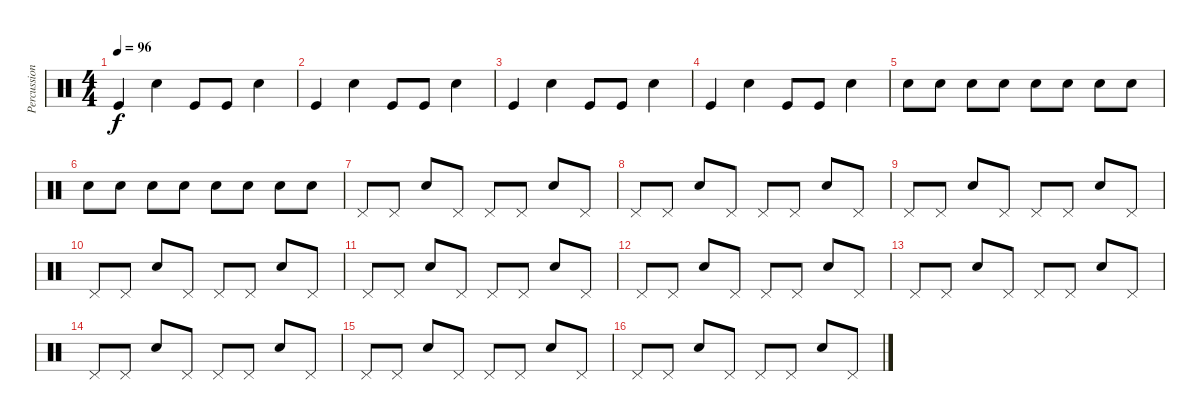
\track ("Percussions" "Percussion") {instrument percussion}
\staff {score}
\articulation defaults
\ts (4 4)
\tempo 96
\clef neutral
\ks c "Kick (hit)".4{dy f} "Snare (hit) 2".4 "Kick (hit)".8 "Kick (hit)".8 "Snare (hit) 2".4
|
"Kick (hit)".4 "Snare (hit) 2".4 "Kick (hit)".8 "Kick (hit)".8 "Snare (hit) 2".4 |
"Kick (hit)".4 "Snare (hit) 2".4 "Kick (hit)".8 "Kick (hit)".8 "Snare (hit) 2".4 |
"Kick (hit)".4 "Snare (hit) 2".4 "Kick (hit)".8 "Kick (hit)".8 "Snare (hit) 2".4 |
"Snare (hit) 2".8 "Snare (hit) 2".8 "Snare (hit) 2".8 "Snare (hit) 2".8 "Snare (hit) 2".8 "Snare (hit) 2".8 "Snare (hit) 2".8 "Snare (hit) 2".8 |
"Snare (hit) 2".8 "Snare (hit) 2".8 "Snare (hit) 2".8 "Snare (hit) 2".8 "Snare (hit) 2".8 "Snare (hit) 2".8 "Snare (hit) 2".8 "Snare (hit) 2".8 |
"Pedal Hi-Hat (hit)".8 "Pedal Hi-Hat (hit)".8 "Snare (hit) 2".8 "Pedal Hi-Hat (hit)".8 "Pedal Hi-Hat (hit)".8 "Pedal Hi-Hat (hit)".8 "Snare (hit) 2".8 "Pedal Hi-Hat (hit)".8 |
"Pedal Hi-Hat (hit)".8 "Pedal Hi-Hat (hit)".8 "Snare (hit) 2".8 "Pedal Hi-Hat (hit)".8 "Pedal Hi-Hat (hit)".8 "Pedal Hi-Hat (hit)".8 "Snare (hit) 2".8 "Pedal Hi-Hat (hit)".8 |
"Pedal Hi-Hat (hit)".8 "Pedal Hi-Hat (hit)".8 "Snare (hit) 2".8 "Pedal Hi-Hat (hit)".8 "Pedal Hi-Hat (hit)".8 "Pedal Hi-Hat (hit)".8 "Snare (hit) 2".8 "Pedal Hi-Hat (hit)".8 |
"Pedal Hi-Hat (hit)".8 "Pedal Hi-Hat (hit)".8 "Snare (hit) 2".8 "Pedal Hi-Hat (hit)".8 "Pedal Hi-Hat (hit)".8 "Pedal Hi-Hat (hit)".8 "Snare (hit) 2".8 "Pedal Hi-Hat (hit)".8 |
"Pedal Hi-Hat (hit)".8 "Pedal Hi-Hat (hit)".8 "Snare (hit) 2".8 "Pedal Hi-Hat (hit)".8 "Pedal Hi-Hat (hit)".8 "Pedal Hi-Hat (hit)".8 "Snare (hit) 2".8 "Pedal Hi-Hat (hit)".8 |
"Pedal Hi-Hat (hit)".8 "Pedal Hi-Hat (hit)".8 "Snare (hit) 2".8 "Pedal Hi-Hat (hit)".8 "Pedal Hi-Hat (hit)".8 "Pedal Hi-Hat (hit)".8 "Snare (hit) 2".8 "Pedal Hi-Hat (hit)".8 |
"Pedal Hi-Hat (hit)".8 "Pedal Hi-Hat (hit)".8 "Snare (hit) 2".8 "Pedal Hi-Hat (hit)".8 "Pedal Hi-Hat (hit)".8 "Pedal Hi-Hat (hit)".8 "Snare (hit) 2".8 "Pedal Hi-Hat (hit)".8 |
"Pedal Hi-Hat (hit)".8 "Pedal Hi-Hat (hit)".8 "Snare (hit) 2".8 "Pedal Hi-Hat (hit)".8 "Pedal Hi-Hat (hit)".8 "Pedal Hi-Hat (hit)".8 "Snare (hit) 2".8 "Pedal Hi-Hat (hit)".8 |
"Pedal Hi-Hat (hit)".8 "Pedal Hi-Hat (hit)".8 "Snare (hit) 2".8 "Pedal Hi-Hat (hit)".8 "Pedal Hi-Hat (hit)".8 "Pedal Hi-Hat (hit)".8 "Snare (hit) 2".8 "Pedal Hi-Hat (hit)".8 |
"Pedal Hi-Hat (hit)".8 "Pedal Hi-Hat (hit)".8 "Snare (hit) 2".8 "Pedal Hi-Hat (hit)".8 "Pedal Hi-Hat (hit)".8 "Pedal Hi-Hat (hit)".8 "Snare (hit) 2".8 "Pedal Hi-Hat (hit)".8
